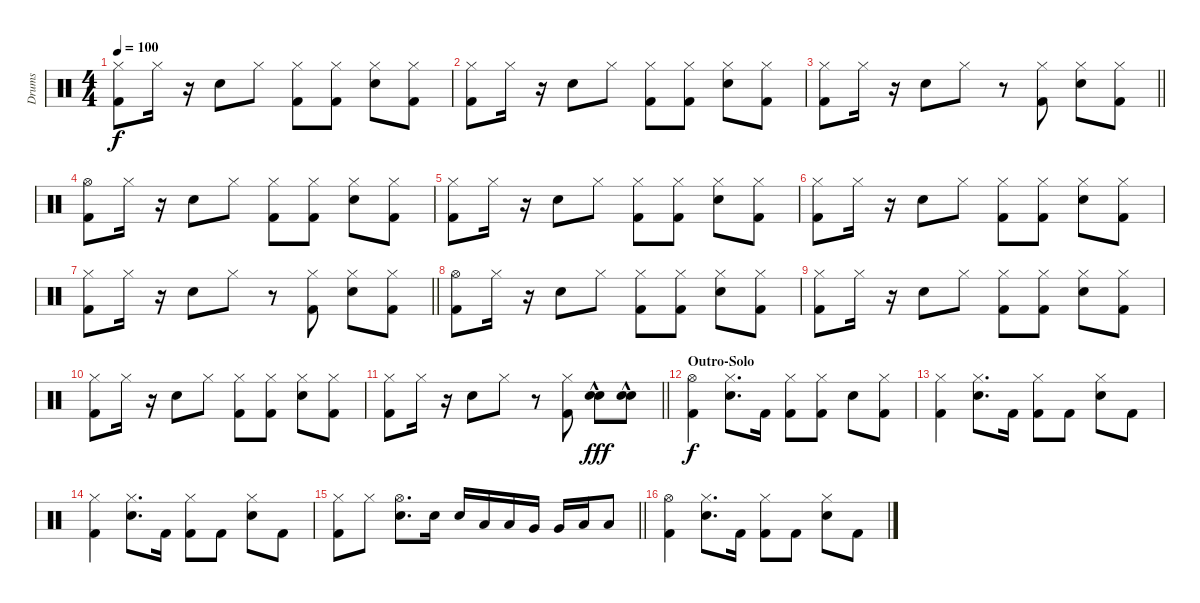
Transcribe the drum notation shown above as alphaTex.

\track ("Drums" "Drums") {instrument percussion}
\staff {score}
\articulation defaults
\ts (4 4)
\tempo 100
\clef neutral
\ks c
("Kick (hit) 2" "Hi-Hat (closed)").8{dy f} "Hi-Hat (closed)".16 r.16 "Electric Snare (hit)".8 "Hi-Hat (closed)".8 ("Kick (hit) 2" "Hi-Hat (closed)").8 ("Kick (hit) 2" "Hi-Hat (closed)").8 ("Electric Snare (hit)" "Hi-Hat (closed)").8 ("Kick (hit) 2" "Hi-Hat (closed)").8 |
("Kick (hit) 2" "Hi-Hat (closed)").8 "Hi-Hat (closed)".16 r.16 "Electric Snare (hit)".8 "Hi-Hat (closed)".8 ("Kick (hit) 2" "Hi-Hat (closed)").8 ("Kick (hit) 2" "Hi-Hat (closed)").8 ("Electric Snare (hit)" "Hi-Hat (closed)").8 ("Kick (hit) 2" "Hi-Hat (closed)").8 |
\barLineRight lightlight
("Kick (hit) 2" "Hi-Hat (closed)").8 "Hi-Hat (closed)".16 r.16 "Electric Snare (hit)".8 "Hi-Hat (closed)".8 r.8 ("Kick (hit) 2" "Hi-Hat (closed)").8 ("Electric Snare (hit)" "Hi-Hat (closed)").8 ("Kick (hit) 2" "Hi-Hat (closed)").8 |
("Kick (hit) 2" "Hi-Hat (open)").8{volume 6} "Hi-Hat (closed)".16 r.16 "Electric Snare (hit)".8 "Hi-Hat (closed)".8 ("Kick (hit) 2" "Hi-Hat (closed)").8 ("Kick (hit) 2" "Hi-Hat (closed)").8 ("Electric Snare (hit)" "Hi-Hat (closed)").8 ("Kick (hit) 2" "Hi-Hat (closed)").8 |
("Kick (hit) 2" "Hi-Hat (closed)").8 "Hi-Hat (closed)".16 r.16 "Electric Snare (hit)".8 "Hi-Hat (closed)".8 ("Kick (hit) 2" "Hi-Hat (closed)").8 ("Kick (hit) 2" "Hi-Hat (closed)").8 ("Electric Snare (hit)" "Hi-Hat (closed)").8 ("Kick (hit) 2" "Hi-Hat (closed)").8 |
("Kick (hit) 2" "Hi-Hat (closed)").8 "Hi-Hat (closed)".16 r.16 "Electric Snare (hit)".8 "Hi-Hat (closed)".8 ("Kick (hit) 2" "Hi-Hat (closed)").8 ("Kick (hit) 2" "Hi-Hat (closed)").8 ("Electric Snare (hit)" "Hi-Hat (closed)").8 ("Kick (hit) 2" "Hi-Hat (closed)").8 |
\barLineRight lightlight
("Kick (hit) 2" "Hi-Hat (closed)").8 "Hi-Hat (closed)".16 r.16 "Electric Snare (hit)".8 "Hi-Hat (closed)".8 r.8 ("Kick (hit) 2" "Hi-Hat (closed)").8 ("Electric Snare (hit)" "Hi-Hat (closed)").8 ("Kick (hit) 2" "Hi-Hat (closed)").8 |
("Kick (hit) 2" "Hi-Hat (open)").8{volume 3} "Hi-Hat (closed)".16 r.16 "Electric Snare (hit)".8 "Hi-Hat (closed)".8 ("Kick (hit) 2" "Hi-Hat (closed)").8 ("Kick (hit) 2" "Hi-Hat (closed)").8 ("Electric Snare (hit)" "Hi-Hat (closed)").8 ("Kick (hit) 2" "Hi-Hat (closed)").8 |
("Kick (hit) 2" "Hi-Hat (closed)").8 "Hi-Hat (closed)".16 r.16 "Electric Snare (hit)".8 "Hi-Hat (closed)".8 ("Kick (hit) 2" "Hi-Hat (closed)").8 ("Kick (hit) 2" "Hi-Hat (closed)").8 ("Electric Snare (hit)" "Hi-Hat (closed)").8 ("Kick (hit) 2" "Hi-Hat (closed)").8 |
("Kick (hit) 2" "Hi-Hat (closed)").8 "Hi-Hat (closed)".16 r.16 "Electric Snare (hit)".8 "Hi-Hat (closed)".8 ("Kick (hit) 2" "Hi-Hat (closed)").8 ("Kick (hit) 2" "Hi-Hat (closed)").8 ("Electric Snare (hit)" "Hi-Hat (closed)").8 ("Kick (hit) 2" "Hi-Hat (closed)").8 |
\barLineRight lightlight
("Kick (hit) 2" "Hi-Hat (closed)").8 "Hi-Hat (closed)".16 r.16 "Electric Snare (hit)".8 "Hi-Hat (closed)".8 r.8 ("Kick (hit) 2" "Hi-Hat (closed)").8 ("Electric Snare (hit)"{hac} "Electric Snare (hit)"{hac}).8{dy fff volume 13} ("Electric Snare (hit)"{hac} "Electric Snare (hit)"{hac}).8 |
\section ("" "Outro-Solo")
("Kick (hit) 2" "Hi-Hat (open)").4{dy f} ("Electric Snare (hit)" "Hi-Hat (closed)").8{d} "Kick (hit) 2".16 ("Kick (hit) 2" "Hi-Hat (closed)").8 ("Kick (hit) 2" "Hi-Hat (closed)").8 "Electric Snare (hit)".8 ("Kick (hit) 2" "Hi-Hat (closed)").8 |
("Kick (hit) 2" "Hi-Hat (closed)").4 ("Electric Snare (hit)" "Hi-Hat (closed)").8{d} "Kick (hit) 2".16 ("Kick (hit) 2" "Hi-Hat (closed)").8 "Kick (hit) 2".8 ("Electric Snare (hit)" "Hi-Hat (closed)").8 "Kick (hit) 2".8 |
("Kick (hit) 2" "Hi-Hat (closed)").4 ("Electric Snare (hit)" "Hi-Hat (closed)").8{d} "Kick (hit) 2".16 ("Kick (hit) 2" "Hi-Hat (closed)").8 "Kick (hit) 2".8 ("Electric Snare (hit)" "Hi-Hat (closed)").8 "Kick (hit) 2".8 |
\barLineRight lightlight
("Kick (hit) 2" "Hi-Hat (closed)").8 "Hi-Hat (closed)".8 ("Electric Snare (hit)" "Hi-Hat (open)").8{d} "Electric Snare (hit)".16 "Electric Snare (hit)".16 "Low Tom (hit)".16 "Low Tom (hit)".16 "Very Low Tom (hit)".16 "Very Low Tom (hit)".16 "Low Floor Tom (hit)".16 "Low Floor Tom (hit)".8 |
("Kick (hit) 2" "Hi-Hat (open)").4 ("Electric Snare (hit)" "Hi-Hat (closed)").8{d} "Kick (hit) 2".16 ("Kick (hit) 2" "Hi-Hat (closed)").8 "Kick (hit) 2".8 ("Electric Snare (hit)" "Hi-Hat (closed)").8 "Kick (hit) 2".8
